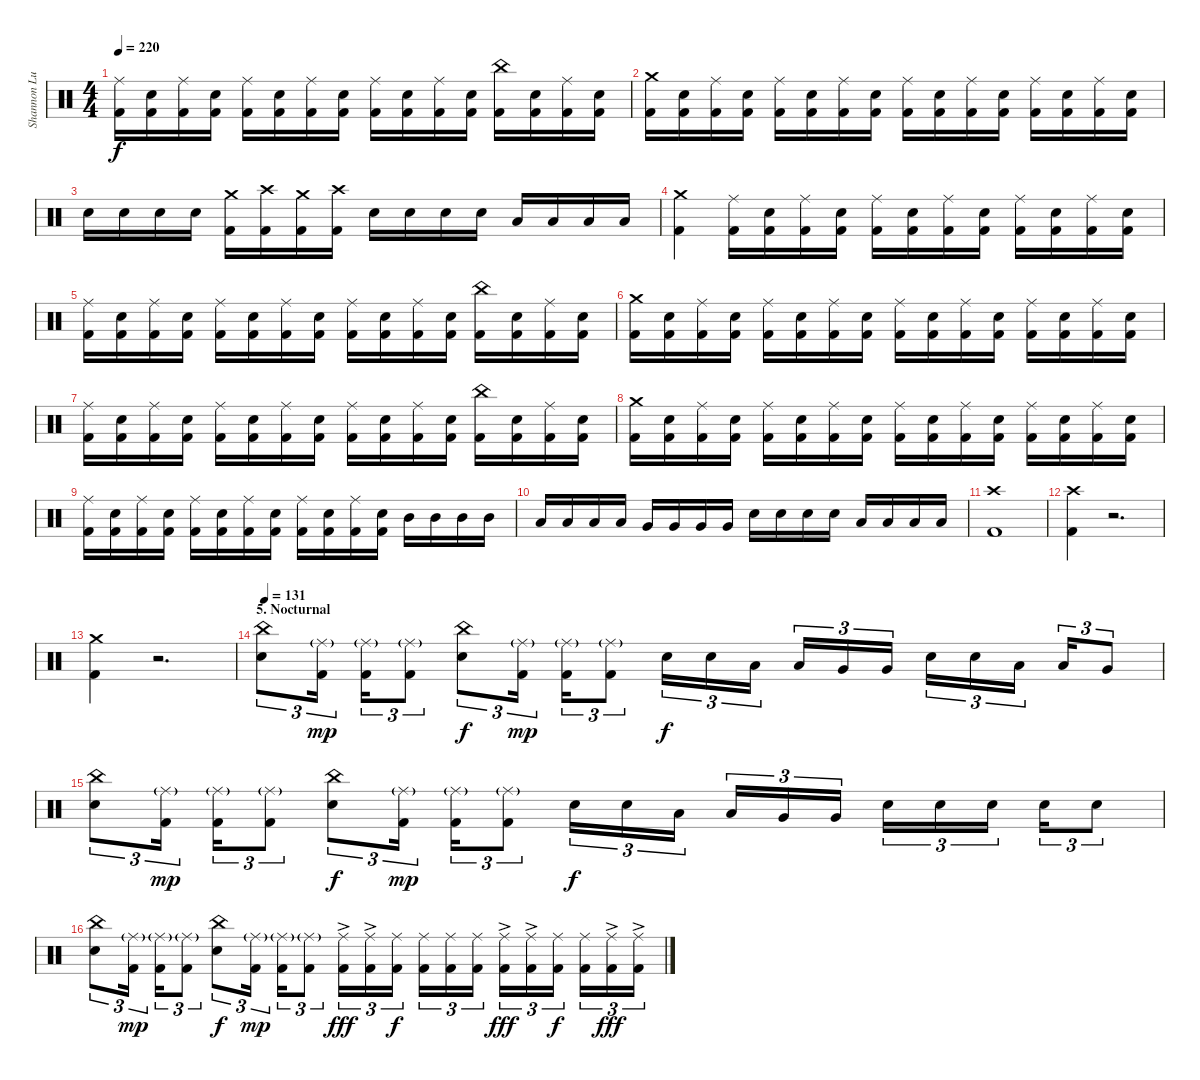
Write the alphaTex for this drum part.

\track ("Shannon Lucas [Drums (Since 2007)]" "Shannon Lu") {instrument percussion}
\staff {score}
\articulation defaults
\ts (4 4)
\tempo 220
\clef neutral
\ks c
("Ride (middle)" "Kick (hit) 2").16{dy f} ("Snare (hit) 2" "Kick (hit) 2").16 ("Ride (middle)" "Kick (hit) 2").16 ("Snare (hit) 2" "Kick (hit) 2").16 ("Ride (middle)" "Kick (hit) 2").16 ("Snare (hit) 2" "Kick (hit) 2").16 ("Ride (middle)" "Kick (hit) 2").16 ("Snare (hit) 2" "Kick (hit) 2").16 ("Ride (middle)" "Kick (hit) 2").16 ("Snare (hit) 2" "Kick (hit) 2").16 ("Ride (middle)" "Kick (hit) 2").16 ("Snare (hit) 2" "Kick (hit) 2").16 ("China (hit)" "Kick (hit) 2").16 ("Snare (hit) 2" "Kick (hit) 2").16 ("Ride (middle)" "Kick (hit) 2").16 ("Snare (hit) 2" "Kick (hit) 2").16 |
("Crash medium (hit)" "Kick (hit) 2").16 ("Snare (hit) 2" "Kick (hit) 2").16 ("Ride (middle)" "Kick (hit) 2").16 ("Snare (hit) 2" "Kick (hit) 2").16 ("Ride (middle)" "Kick (hit) 2").16 ("Snare (hit) 2" "Kick (hit) 2").16 ("Ride (middle)" "Kick (hit) 2").16 ("Snare (hit) 2" "Kick (hit) 2").16 ("Ride (middle)" "Kick (hit) 2").16 ("Snare (hit) 2" "Kick (hit) 2").16 ("Ride (middle)" "Kick (hit) 2").16 ("Snare (hit) 2" "Kick (hit) 2").16 ("Ride (middle)" "Kick (hit) 2").16 ("Snare (hit) 2" "Kick (hit) 2").16 ("Ride (middle)" "Kick (hit) 2").16 ("Snare (hit) 2" "Kick (hit) 2").16 |
"Snare (hit) 2".16 "Snare (hit) 2".16 "Snare (hit) 2".16 "Snare (hit) 2".16 ("Crash medium (hit)" "Kick (hit) 2").16 ("Crash high (hit)" "Kick (hit) 2").16 ("Crash medium (hit)" "Kick (hit) 2").16 ("Crash high (hit)" "Kick (hit) 2").16 "Snare (hit) 2".16 "Snare (hit) 2".16 "Snare (hit) 2".16 "Snare (hit) 2".16 "Low Tom (hit)".16 "Low Tom (hit)".16 "Low Tom (hit)".16 "Low Tom (hit)".16 |
("Crash medium (hit)" "Kick (hit) 2").4 ("Ride (middle)" "Kick (hit) 2").16 ("Snare (hit) 2" "Kick (hit) 2").16 ("Ride (middle)" "Kick (hit) 2").16 ("Snare (hit) 2" "Kick (hit) 2").16 ("Ride (middle)" "Kick (hit) 2").16 ("Snare (hit) 2" "Kick (hit) 2").16 ("Ride (middle)" "Kick (hit) 2").16 ("Snare (hit) 2" "Kick (hit) 2").16 ("Ride (middle)" "Kick (hit) 2").16 ("Snare (hit) 2" "Kick (hit) 2").16 ("Ride (middle)" "Kick (hit) 2").16 ("Snare (hit) 2" "Kick (hit) 2").16 |
("Ride (middle)" "Kick (hit) 2").16 ("Snare (hit) 2" "Kick (hit) 2").16 ("Ride (middle)" "Kick (hit) 2").16 ("Snare (hit) 2" "Kick (hit) 2").16 ("Ride (middle)" "Kick (hit) 2").16 ("Snare (hit) 2" "Kick (hit) 2").16 ("Ride (middle)" "Kick (hit) 2").16 ("Snare (hit) 2" "Kick (hit) 2").16 ("Ride (middle)" "Kick (hit) 2").16 ("Snare (hit) 2" "Kick (hit) 2").16 ("Ride (middle)" "Kick (hit) 2").16 ("Snare (hit) 2" "Kick (hit) 2").16 ("China (hit)" "Kick (hit) 2").16 ("Snare (hit) 2" "Kick (hit) 2").16 ("Ride (middle)" "Kick (hit) 2").16 ("Snare (hit) 2" "Kick (hit) 2").16 |
("Crash medium (hit)" "Kick (hit) 2").16 ("Snare (hit) 2" "Kick (hit) 2").16 ("Ride (middle)" "Kick (hit) 2").16 ("Snare (hit) 2" "Kick (hit) 2").16 ("Ride (middle)" "Kick (hit) 2").16 ("Snare (hit) 2" "Kick (hit) 2").16 ("Ride (middle)" "Kick (hit) 2").16 ("Snare (hit) 2" "Kick (hit) 2").16 ("Ride (middle)" "Kick (hit) 2").16 ("Snare (hit) 2" "Kick (hit) 2").16 ("Ride (middle)" "Kick (hit) 2").16 ("Snare (hit) 2" "Kick (hit) 2").16 ("Ride (middle)" "Kick (hit) 2").16 ("Snare (hit) 2" "Kick (hit) 2").16 ("Ride (middle)" "Kick (hit) 2").16 ("Snare (hit) 2" "Kick (hit) 2").16 |
("Ride (middle)" "Kick (hit) 2").16 ("Snare (hit) 2" "Kick (hit) 2").16 ("Ride (middle)" "Kick (hit) 2").16 ("Snare (hit) 2" "Kick (hit) 2").16 ("Ride (middle)" "Kick (hit) 2").16 ("Snare (hit) 2" "Kick (hit) 2").16 ("Ride (middle)" "Kick (hit) 2").16 ("Snare (hit) 2" "Kick (hit) 2").16 ("Ride (middle)" "Kick (hit) 2").16 ("Snare (hit) 2" "Kick (hit) 2").16 ("Ride (middle)" "Kick (hit) 2").16 ("Snare (hit) 2" "Kick (hit) 2").16 ("China (hit)" "Kick (hit) 2").16 ("Snare (hit) 2" "Kick (hit) 2").16 ("Ride (middle)" "Kick (hit) 2").16 ("Snare (hit) 2" "Kick (hit) 2").16 |
("Crash medium (hit)" "Kick (hit) 2").16 ("Snare (hit) 2" "Kick (hit) 2").16 ("Ride (middle)" "Kick (hit) 2").16 ("Snare (hit) 2" "Kick (hit) 2").16 ("Ride (middle)" "Kick (hit) 2").16 ("Snare (hit) 2" "Kick (hit) 2").16 ("Ride (middle)" "Kick (hit) 2").16 ("Snare (hit) 2" "Kick (hit) 2").16 ("Ride (middle)" "Kick (hit) 2").16 ("Snare (hit) 2" "Kick (hit) 2").16 ("Ride (middle)" "Kick (hit) 2").16 ("Snare (hit) 2" "Kick (hit) 2").16 ("Ride (middle)" "Kick (hit) 2").16 ("Snare (hit) 2" "Kick (hit) 2").16 ("Ride (middle)" "Kick (hit) 2").16 ("Snare (hit) 2" "Kick (hit) 2").16 |
("Ride (middle)" "Kick (hit) 2").16 ("Snare (hit) 2" "Kick (hit) 2").16 ("Ride (middle)" "Kick (hit) 2").16 ("Snare (hit) 2" "Kick (hit) 2").16 ("Ride (middle)" "Kick (hit) 2").16 ("Snare (hit) 2" "Kick (hit) 2").16 ("Ride (middle)" "Kick (hit) 2").16 ("Snare (hit) 2" "Kick (hit) 2").16 ("Ride (middle)" "Kick (hit) 2").16 ("Snare (hit) 2" "Kick (hit) 2").16 ("Ride (middle)" "Kick (hit) 2").16 ("Snare (hit) 2" "Kick (hit) 2").16 "Mid Tom (hit)".16 "Mid Tom (hit)".16 "Mid Tom (hit)".16 "Mid Tom (hit)".16 |
"Low Tom (hit)".16 "Low Tom (hit)".16 "Low Tom (hit)".16 "Low Tom (hit)".16 "Very Low Tom (hit)".16 "Very Low Tom (hit)".16 "Very Low Tom (hit)".16 "Very Low Tom (hit)".16 "Snare (hit) 2".16 "Snare (hit) 2".16 "Snare (hit) 2".16 "Snare (hit) 2".16 "Low Floor Tom (hit)".16 "Low Floor Tom (hit)".16 "Low Floor Tom (hit)".16 "Low Floor Tom (hit)".16 |
("Crash high (hit)" "Kick (hit) 2").1 |
("Kick (hit) 2" "Crash high (hit)").4 r.2{d} |
("Crash medium (hit)" "Kick (hit) 2").4 r.2{d} |
\section ("" "5. Nocturnal")
\tempo 131
("China (hit)" "Snare (hit) 2").8{tu (3 2)} ("Ride (middle)"{g} "Kick (hit) 2").16{tu (3 2) dy mp} ("Ride (middle)"{g} "Kick (hit) 2").16{tu (3 2)} ("Ride (middle)"{g} "Kick (hit) 2").8{tu (3 2)} ("China (hit)" "Snare (hit) 2").8{tu (3 2) dy f} ("Ride (middle)"{g} "Kick (hit) 2").16{tu (3 2) dy mp} ("Ride (middle)"{g} "Kick (hit) 2").16{tu (3 2)} ("Ride (middle)"{g} "Kick (hit) 2").8{tu (3 2)} "Snare (hit) 2".16{tu (3 2) dy f} "Snare (hit) 2".16{tu (3 2)} "Low Tom (hit)".16{tu (3 2)} "Low Tom (hit)".16{tu (3 2)} "Very Low Tom (hit)".16{tu (3 2)} "Very Low Tom (hit)".16{tu (3 2)} "Snare (hit) 2".16{tu (3 2)} "Snare (hit) 2".16{tu (3 2)} "Low Tom (hit)".16{tu (3 2)} "Low Tom (hit)".16{tu (3 2)} "Very Low Tom (hit)".8{tu (3 2)} |
("China (hit)" "Snare (hit) 2").8{tu (3 2)} ("Ride (middle)"{g} "Kick (hit) 2").16{tu (3 2) dy mp} ("Ride (middle)"{g} "Kick (hit) 2").16{tu (3 2)} ("Ride (middle)"{g} "Kick (hit) 2").8{tu (3 2)} ("China (hit)" "Snare (hit) 2").8{tu (3 2) dy f} ("Ride (middle)"{g} "Kick (hit) 2").16{tu (3 2) dy mp} ("Ride (middle)"{g} "Kick (hit) 2").16{tu (3 2)} ("Ride (middle)"{g} "Kick (hit) 2").8{tu (3 2)} "Snare (hit) 2".16{tu (3 2) dy f} "Snare (hit) 2".16{tu (3 2)} "Low Tom (hit)".16{tu (3 2)} "Low Tom (hit)".16{tu (3 2)} "Very Low Tom (hit)".16{tu (3 2)} "Very Low Tom (hit)".16{tu (3 2)} "Snare (hit) 2".16{tu (3 2)} "Snare (hit) 2".16{tu (3 2)} "Snare (hit) 2".16{tu (3 2)} "Snare (hit) 2".16{tu (3 2)} "Snare (hit) 2".8{tu (3 2)} |
("China (hit)" "Snare (hit) 2").8{tu (3 2)} ("Ride (middle)"{g} "Kick (hit) 2").16{tu (3 2) dy mp} ("Ride (middle)"{g} "Kick (hit) 2").16{tu (3 2)} ("Ride (middle)"{g} "Kick (hit) 2").8{tu (3 2)} ("China (hit)" "Snare (hit) 2").8{tu (3 2) dy f} ("Ride (middle)"{g} "Kick (hit) 2").16{tu (3 2) dy mp} ("Ride (middle)"{g} "Kick (hit) 2").16{tu (3 2)} ("Ride (middle)"{g} "Kick (hit) 2").8{tu (3 2)} ("Ride (middle)"{ac} "Kick (hit) 2").16{tu (3 2) dy fff} ("Ride (middle)"{ac} "Kick (hit) 2").16{tu (3 2)} ("Ride (middle)" "Kick (hit) 2").16{tu (3 2) dy f} ("Ride (middle)" "Kick (hit) 2").16{tu (3 2)} ("Ride (middle)" "Kick (hit) 2").16{tu (3 2)} ("Ride (middle)" "Kick (hit) 2").16{tu (3 2)} ("Ride (middle)"{ac} "Kick (hit) 2").16{tu (3 2) dy fff} ("Ride (middle)"{ac} "Kick (hit) 2").16{tu (3 2)} ("Ride (middle)" "Kick (hit) 2").16{tu (3 2) dy f} ("Ride (middle)" "Kick (hit) 2").16{tu (3 2)} ("Ride (middle)"{ac} "Kick (hit) 2").16{tu (3 2) dy fff} ("Ride (middle)"{ac} "Kick (hit) 2").16{tu (3 2)}
